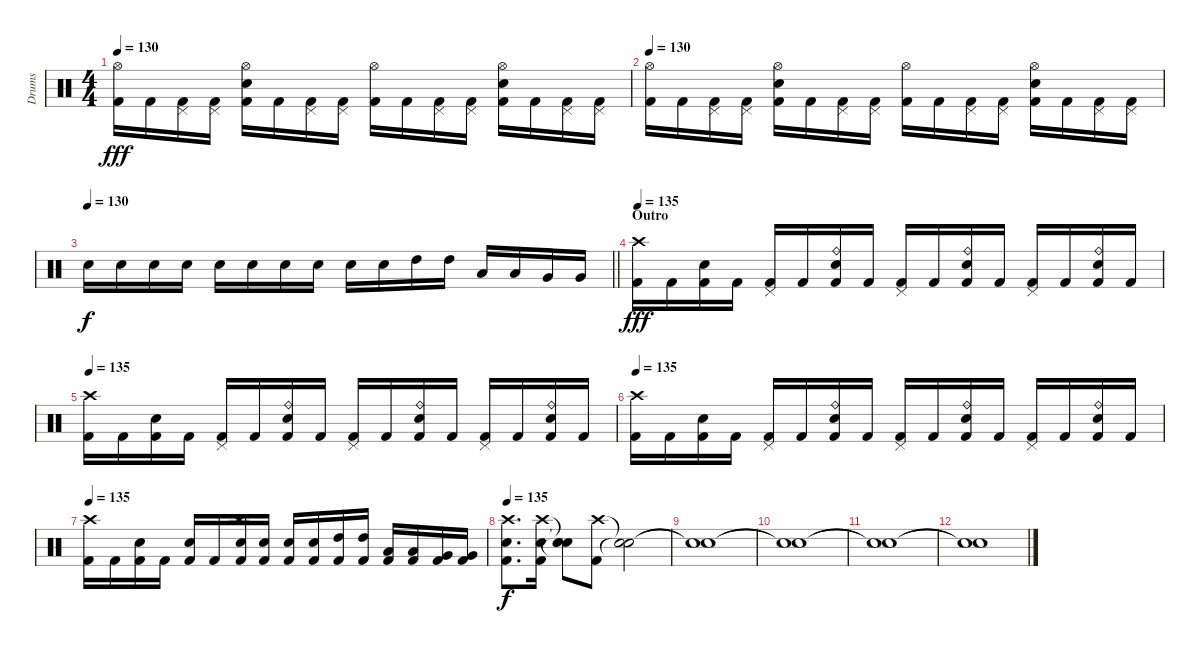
\track ("Drums" "Drums") {instrument percussion}
\staff {score}
\articulation defaults
\ts (4 4)
\tempo 130
\clef neutral
\ks c
("Hi-Hat (open)" "Kick (hit) 2").16{dy fff} "Kick (hit) 2".16 ("Pedal Hi-Hat (hit)" "Kick (hit) 2").16 ("Pedal Hi-Hat (hit)" "Kick (hit) 2").16 ("Hi-Hat (open)" "Snare (hit) 2" "Kick (hit) 2").16 "Kick (hit) 2".16 ("Pedal Hi-Hat (hit)" "Kick (hit) 2").16 ("Pedal Hi-Hat (hit)" "Kick (hit) 2").16 ("Hi-Hat (open)" "Kick (hit) 2").16 "Kick (hit) 2".16 ("Pedal Hi-Hat (hit)" "Kick (hit) 2").16 ("Pedal Hi-Hat (hit)" "Kick (hit) 2").16 ("Hi-Hat (open)" "Snare (hit) 2" "Kick (hit) 2").16 "Kick (hit) 2".16 ("Pedal Hi-Hat (hit)" "Kick (hit) 2").16 ("Pedal Hi-Hat (hit)" "Kick (hit) 2").16 |
\tempo 130
("Hi-Hat (open)" "Kick (hit) 2").16 "Kick (hit) 2".16 ("Pedal Hi-Hat (hit)" "Kick (hit) 2").16 ("Pedal Hi-Hat (hit)" "Kick (hit) 2").16 ("Hi-Hat (open)" "Snare (hit) 2" "Kick (hit) 2").16 "Kick (hit) 2".16 ("Pedal Hi-Hat (hit)" "Kick (hit) 2").16 ("Pedal Hi-Hat (hit)" "Kick (hit) 2").16 ("Hi-Hat (open)" "Kick (hit) 2").16 "Kick (hit) 2".16 ("Pedal Hi-Hat (hit)" "Kick (hit) 2").16 ("Pedal Hi-Hat (hit)" "Kick (hit) 2").16 ("Hi-Hat (open)" "Snare (hit) 2" "Kick (hit) 2").16 "Kick (hit) 2".16 ("Pedal Hi-Hat (hit)" "Kick (hit) 2").16 ("Pedal Hi-Hat (hit)" "Kick (hit) 2").16 |
\tempo 130
\barLineRight lightlight "Snare (hit) 2".16{dy f} "Snare (hit) 2".16 "Snare (hit) 2".16 "Snare (hit) 2".16 "Snare (hit) 2".16 "Snare (hit) 2".16 "Snare (hit) 2".16 "Snare (hit) 2".16 "Snare (hit) 2".16 "Snare (hit) 2".16 "High Tom (hit)".16 "High Tom (hit)".16 "Low Tom (hit)".16 "Low Tom (hit)".16 "Very Low Tom (hit)".16 "Very Low Tom (hit)".16
|
\section ("" "Outro")
\tempo 135
("Crash high (hit)" "Kick (hit) 2").16{dy fff} "Kick (hit) 2".16 ("Electric Snare (hit)" "Kick (hit) 2").16 "Kick (hit) 2".16 ("Pedal Hi-Hat (hit)" "Kick (hit) 2").16 "Kick (hit) 2".16 ("Ride (bell)" "Electric Snare (hit)" "Kick (hit) 2").16 "Kick (hit) 2".16 ("Pedal Hi-Hat (hit)" "Kick (hit) 2").16 "Kick (hit) 2".16 ("Ride (bell)" "Electric Snare (hit)" "Kick (hit) 2").16 "Kick (hit) 2".16 ("Pedal Hi-Hat (hit)" "Kick (hit) 2").16 "Kick (hit) 2".16 ("Ride (bell)" "Electric Snare (hit)" "Kick (hit) 2").16 "Kick (hit) 2".16 |
\tempo 135
("Crash high (hit)" "Kick (hit) 2").16 "Kick (hit) 2".16 ("Electric Snare (hit)" "Kick (hit) 2").16 "Kick (hit) 2".16 ("Pedal Hi-Hat (hit)" "Kick (hit) 2").16 "Kick (hit) 2".16 ("Ride (bell)" "Electric Snare (hit)" "Kick (hit) 2").16 "Kick (hit) 2".16 ("Pedal Hi-Hat (hit)" "Kick (hit) 2").16 "Kick (hit) 2".16 ("Ride (bell)" "Electric Snare (hit)" "Kick (hit) 2").16 "Kick (hit) 2".16 ("Pedal Hi-Hat (hit)" "Kick (hit) 2").16 "Kick (hit) 2".16 ("Ride (bell)" "Electric Snare (hit)" "Kick (hit) 2").16 "Kick (hit) 2".16 |
\tempo 135
("Crash high (hit)" "Kick (hit) 2").16 "Kick (hit) 2".16 ("Electric Snare (hit)" "Kick (hit) 2").16 "Kick (hit) 2".16 ("Pedal Hi-Hat (hit)" "Kick (hit) 2").16 "Kick (hit) 2".16 ("Ride (bell)" "Electric Snare (hit)" "Kick (hit) 2").16 "Kick (hit) 2".16 ("Pedal Hi-Hat (hit)" "Kick (hit) 2").16 "Kick (hit) 2".16 ("Ride (bell)" "Electric Snare (hit)" "Kick (hit) 2").16 "Kick (hit) 2".16 ("Pedal Hi-Hat (hit)" "Kick (hit) 2").16 "Kick (hit) 2".16 ("Ride (bell)" "Electric Snare (hit)" "Kick (hit) 2").16 "Kick (hit) 2".16 |
\tempo 135
("Crash high (hit)" "Kick (hit) 2").16 "Kick (hit) 2".16 ("Electric Snare (hit)" "Kick (hit) 2").16 "Kick (hit) 2".16 ("Electric Snare (hit)" "Kick (hit) 2").16 "Kick (hit) 2".16 ("Crash high (hit)" "Electric Snare (hit)" "Kick (hit) 2").16 ("Electric Snare (hit)" "Kick (hit) 2").16 ("Electric Snare (hit)" "Kick (hit) 2").16 ("Electric Snare (hit)" "Kick (hit) 2").16 ("High Tom (hit)" "Kick (hit) 2").16 ("High Tom (hit)" "Kick (hit) 2").16 ("Low Tom (hit)" "Kick (hit) 2").16 ("Low Tom (hit)" "Kick (hit) 2").16 ("Very Low Tom (hit)" "Kick (hit) 2").16 ("Very Low Tom (hit)" "Kick (hit) 2").16 |
\tempo 135
("Crash high (hit)" "Snare (hit) 2" "Kick (hit) 2").8{d dy f} ("Crash high (hit)" "Snare (hit) 2" "Kick (hit) 2").16 ("Snare (hit)"{t} "Snare (hit)"{t} "Snare (hit)"{t}).8 ("Crash high (hit)" "Kick (hit) 2").8 ("Snare (hit)"{t} "Snare (hit)"{t}).2 |
("Snare (hit)"{t} "Snare (hit)"{t}).1 |
("Snare (hit)"{t} "Snare (hit)"{t}).1 |
("Snare (hit)"{t} "Snare (hit)"{t}).1 |
("Snare (hit)"{t} "Snare (hit)"{t}).1
